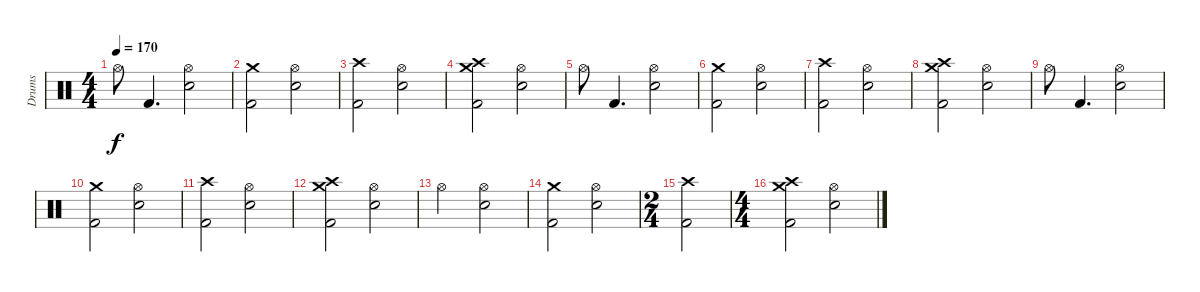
\track ("Drums" "Drums") {instrument percussion}
\staff {score}
\articulation defaults
\ts (4 4)
\tempo 170
\clef neutral
\ks c "Hi-Hat (open)".8{dy f} "Kick (hit) 2".4{d}
("Hi-Hat (open)" "Electric Snare (hit)").2 |
("Crash medium (hit)" "Kick (hit) 2").2 ("Hi-Hat (open)" "Electric Snare (hit)").2 |
("Crash high (hit)" "Kick (hit) 2").2 ("Hi-Hat (open)" "Electric Snare (hit)").2 |
("Crash medium (hit)" "Crash high (hit)" "Kick (hit) 2").2 ("Hi-Hat (open)" "Electric Snare (hit)").2 |
"Hi-Hat (open)".8 "Kick (hit) 2".4{d} ("Hi-Hat (open)" "Electric Snare (hit)").2 |
("Crash medium (hit)" "Kick (hit) 2").2 ("Hi-Hat (open)" "Electric Snare (hit)").2 |
("Crash high (hit)" "Kick (hit) 2").2 ("Hi-Hat (open)" "Electric Snare (hit)").2 |
("Crash medium (hit)" "Crash high (hit)" "Kick (hit) 2").2 ("Hi-Hat (open)" "Electric Snare (hit)").2 |
"Hi-Hat (open)".8 "Kick (hit) 2".4{d} ("Hi-Hat (open)" "Electric Snare (hit)").2 |
("Crash medium (hit)" "Kick (hit) 2").2 ("Hi-Hat (open)" "Electric Snare (hit)").2 |
("Crash high (hit)" "Kick (hit) 2").2 ("Hi-Hat (open)" "Electric Snare (hit)").2 |
("Crash medium (hit)" "Crash high (hit)" "Kick (hit) 2").2 ("Hi-Hat (open)" "Electric Snare (hit)").2 |
"Hi-Hat (open)".2 ("Hi-Hat (open)" "Electric Snare (hit)").2 |
("Crash medium (hit)" "Kick (hit) 2").2 ("Hi-Hat (open)" "Electric Snare (hit)").2 |
\ts (2 4)
("Crash high (hit)" "Kick (hit) 2").2 |
\ts (4 4)
("Crash medium (hit)" "Crash high (hit)" "Kick (hit) 2").2 ("Hi-Hat (open)" "Electric Snare (hit)").2
